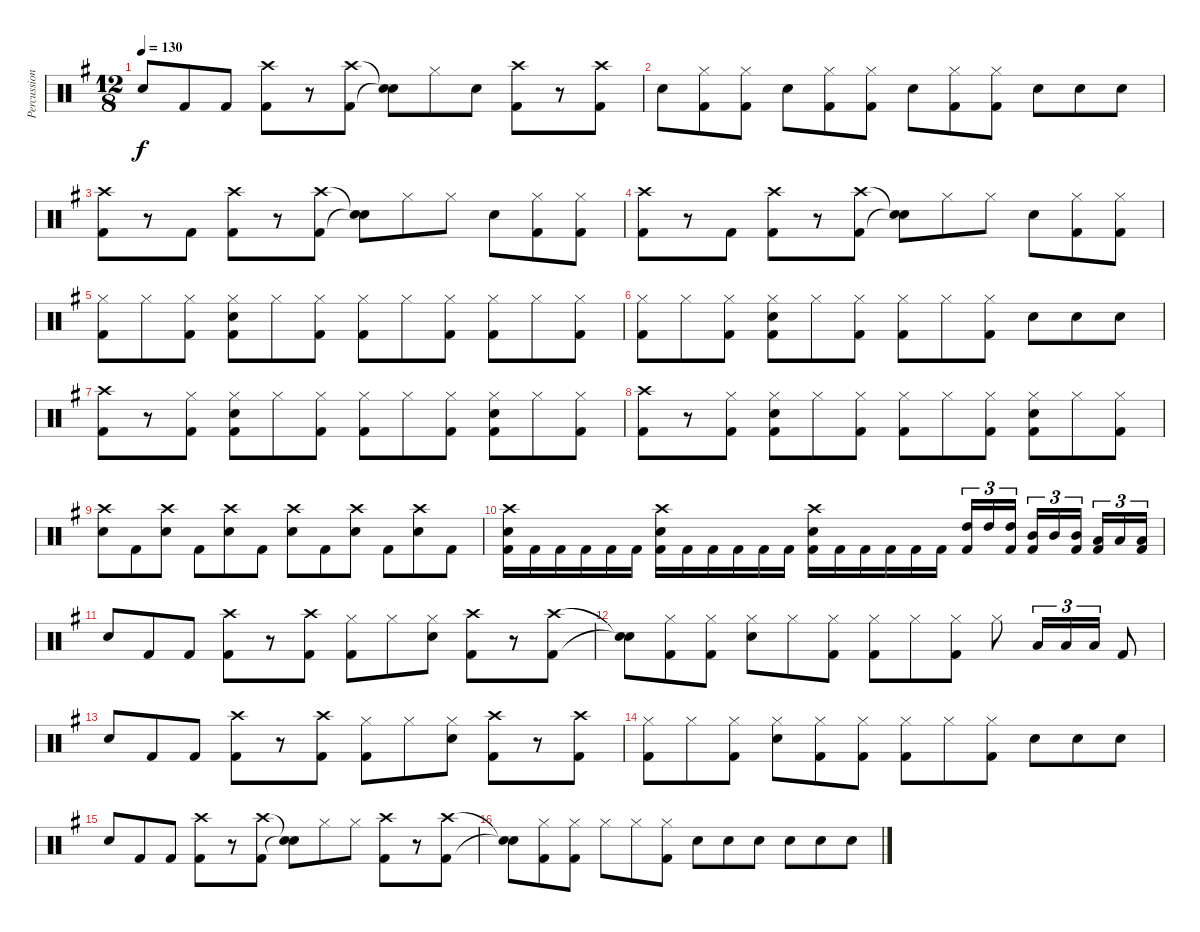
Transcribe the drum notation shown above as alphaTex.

\track ("Percussion" "Percussion") {instrument percussion}
\staff {score}
\articulation defaults
\ts (12 8)
\tempo 130
\clef neutral
\ks g "Snare (hit) 2".8{dy f} "Kick (hit) 2".8 "Kick (hit) 2".8
("Crash high (hit)" "Kick (hit) 2").8 r.8 ("Crash high (hit)" "Kick (hit) 2").8 ("Snare (hit)"{t} "Snare (hit)"{t}).8 "Hi-Hat (closed)".8 "Snare (hit) 2".8 ("Crash high (hit)" "Kick (hit) 2").8 r.8 ("Crash high (hit)" "Kick (hit) 2").8 |
"Snare (hit) 2".8 ("Hi-Hat (closed)" "Kick (hit) 2").8 ("Hi-Hat (closed)" "Kick (hit) 2").8 "Snare (hit) 2".8 ("Hi-Hat (closed)" "Kick (hit) 2").8 ("Hi-Hat (closed)" "Kick (hit) 2").8 "Snare (hit) 2".8 ("Hi-Hat (closed)" "Kick (hit) 2").8 ("Hi-Hat (closed)" "Kick (hit) 2").8 "Snare (hit) 2".8 "Snare (hit) 2".8 "Snare (hit) 2".8 |
("Crash high (hit)" "Kick (hit) 2").8 r.8 "Kick (hit) 2".8 ("Crash high (hit)" "Kick (hit) 2").8 r.8 ("Crash high (hit)" "Kick (hit) 2").8 ("Snare (hit)"{t} "Snare (hit)"{t}).8 "Hi-Hat (closed)".8 "Hi-Hat (closed)".8 "Snare (hit) 2".8 ("Hi-Hat (closed)" "Kick (hit) 2").8 ("Hi-Hat (closed)" "Kick (hit) 2").8 |
("Crash high (hit)" "Kick (hit) 2").8 r.8 "Kick (hit) 2".8 ("Crash high (hit)" "Kick (hit) 2").8 r.8 ("Crash high (hit)" "Kick (hit) 2").8 ("Snare (hit)"{t} "Snare (hit)"{t}).8 "Hi-Hat (closed)".8 "Hi-Hat (closed)".8 "Snare (hit) 2".8 ("Hi-Hat (closed)" "Kick (hit) 2").8 ("Hi-Hat (closed)" "Kick (hit) 2").8 |
("Hi-Hat (closed)" "Kick (hit) 2").8 "Hi-Hat (closed)".8 ("Hi-Hat (closed)" "Kick (hit) 2").8 ("Hi-Hat (closed)" "Snare (hit) 2" "Kick (hit) 2").8 "Hi-Hat (closed)".8 ("Hi-Hat (closed)" "Kick (hit) 2").8 ("Hi-Hat (closed)" "Kick (hit) 2").8 "Hi-Hat (closed)".8 ("Hi-Hat (closed)" "Kick (hit) 2").8 ("Hi-Hat (closed)" "Kick (hit) 2").8 "Hi-Hat (closed)".8 ("Hi-Hat (closed)" "Kick (hit) 2").8 |
("Hi-Hat (closed)" "Kick (hit) 2").8 "Hi-Hat (closed)".8 ("Hi-Hat (closed)" "Kick (hit) 2").8 ("Hi-Hat (closed)" "Snare (hit) 2" "Kick (hit) 2").8 "Hi-Hat (closed)".8 ("Hi-Hat (closed)" "Kick (hit) 2").8 ("Hi-Hat (closed)" "Kick (hit) 2").8 "Hi-Hat (closed)".8 ("Hi-Hat (closed)" "Kick (hit) 2").8 "Snare (hit) 2".8 "Snare (hit) 2".8 "Snare (hit) 2".8 |
("Crash high (hit)" "Kick (hit) 2").8 r.8 ("Hi-Hat (closed)" "Kick (hit) 2").8 ("Hi-Hat (closed)" "Snare (hit) 2" "Kick (hit) 2").8 "Hi-Hat (closed)".8 ("Hi-Hat (closed)" "Kick (hit) 2").8 ("Hi-Hat (closed)" "Kick (hit) 2").8 "Hi-Hat (closed)".8 ("Hi-Hat (closed)" "Kick (hit) 2").8 ("Hi-Hat (closed)" "Snare (hit) 2" "Kick (hit) 2").8 "Hi-Hat (closed)".8 ("Hi-Hat (closed)" "Kick (hit) 2").8 |
("Crash high (hit)" "Kick (hit) 2").8 r.8 ("Hi-Hat (closed)" "Kick (hit) 2").8 ("Hi-Hat (closed)" "Snare (hit) 2" "Kick (hit) 2").8 "Hi-Hat (closed)".8 ("Hi-Hat (closed)" "Kick (hit) 2").8 ("Hi-Hat (closed)" "Kick (hit) 2").8 "Hi-Hat (closed)".8 ("Hi-Hat (closed)" "Kick (hit) 2").8 ("Hi-Hat (closed)" "Snare (hit) 2" "Kick (hit) 2").8 "Hi-Hat (closed)".8 ("Hi-Hat (closed)" "Kick (hit) 2").8 |
("Crash high (hit)" "Snare (hit) 2").8 "Kick (hit) 2".8 ("Crash high (hit)" "Snare (hit) 2").8 "Kick (hit) 2".8 ("Crash high (hit)" "Snare (hit) 2").8 "Kick (hit) 2".8 ("Crash high (hit)" "Snare (hit) 2").8 "Kick (hit) 2".8 ("Crash high (hit)" "Snare (hit) 2").8 "Kick (hit) 2".8 ("Crash high (hit)" "Snare (hit) 2").8 "Kick (hit) 2".8 |
("Crash high (hit)" "Snare (hit) 2" "Kick (hit) 2").16 "Kick (hit) 2".16 "Kick (hit) 2".16 "Kick (hit) 2".16 "Kick (hit) 2".16 "Kick (hit) 2".16 ("Crash high (hit)" "Snare (hit) 2" "Kick (hit) 2").16 "Kick (hit) 2".16 "Kick (hit) 2".16 "Kick (hit) 2".16 "Kick (hit) 2".16 "Kick (hit) 2".16 ("Crash high (hit)" "Snare (hit) 2" "Kick (hit) 2").16 "Kick (hit) 2".16 "Kick (hit) 2".16 "Kick (hit) 2".16 "Kick (hit) 2".16 "Kick (hit) 2".16 ("High Tom (hit)" "Kick (hit) 2").16{tu (3 2)} "High Tom (hit)".16{tu (3 2)} ("High Tom (hit)" "Kick (hit) 2").16{tu (3 2) beam splitsecondary} ("Mid Tom (hit)" "Kick (hit) 2").16{tu (3 2)} "Mid Tom (hit)".16{tu (3 2)} ("Mid Tom (hit)" "Kick (hit) 2").16{tu (3 2) beam splitsecondary} ("Low Tom (hit)" "Kick (hit) 2").16{tu (3 2)} "Low Tom (hit)".16{tu (3 2)} ("Low Tom (hit)" "Kick (hit) 2").16{tu (3 2)} |
"Snare (hit) 2".8 "Kick (hit) 2".8 "Kick (hit) 2".8 ("Crash high (hit)" "Kick (hit) 2").8 r.8 ("Crash high (hit)" "Kick (hit) 2").8 ("Hi-Hat (closed)" "Kick (hit) 2").8 "Hi-Hat (closed)".8 ("Hi-Hat (closed)" "Snare (hit) 2").8 ("Crash high (hit)" "Kick (hit) 2").8 r.8 ("Crash high (hit)" "Kick (hit) 2").8 |
("Snare (hit)"{t} "Snare (hit)"{t}).8 ("Hi-Hat (closed)" "Kick (hit) 2").8 ("Hi-Hat (closed)" "Kick (hit) 2").8 ("Hi-Hat (closed)" "Snare (hit) 2").8 "Hi-Hat (closed)".8 ("Hi-Hat (closed)" "Kick (hit) 2").8 ("Hi-Hat (closed)" "Kick (hit) 2").8 "Hi-Hat (closed)".8 ("Hi-Hat (closed)" "Kick (hit) 2").8 "Hi-Hat (closed)".8 "Low Tom (hit)".16{tu (3 2)} "Low Tom (hit)".16{tu (3 2)} "Low Tom (hit)".16{tu (3 2)} "Kick (hit) 2".8 |
"Snare (hit) 2".8 "Kick (hit) 2".8 "Kick (hit) 2".8 ("Crash high (hit)" "Kick (hit) 2").8 r.8 ("Crash high (hit)" "Kick (hit) 2").8 ("Hi-Hat (closed)" "Kick (hit) 2").8 "Hi-Hat (closed)".8 ("Hi-Hat (closed)" "Snare (hit) 2").8 ("Crash high (hit)" "Kick (hit) 2").8 r.8 ("Crash high (hit)" "Kick (hit) 2").8 |
("Hi-Hat (closed)" "Kick (hit) 2").8 "Hi-Hat (closed)".8 ("Hi-Hat (closed)" "Kick (hit) 2").8 ("Hi-Hat (closed)" "Snare (hit) 2").8 ("Hi-Hat (closed)" "Kick (hit) 2").8 ("Hi-Hat (closed)" "Kick (hit) 2").8 ("Hi-Hat (closed)" "Kick (hit) 2").8 "Hi-Hat (closed)".8 ("Hi-Hat (closed)" "Kick (hit) 2").8 "Snare (hit) 2".8 "Snare (hit) 2".8 "Snare (hit) 2".8 |
"Snare (hit) 2".8 "Kick (hit) 2".8 "Kick (hit) 2".8 ("Crash high (hit)" "Kick (hit) 2").8 r.8 ("Crash high (hit)" "Kick (hit) 2").8 ("Snare (hit)"{t} "Snare (hit)"{t}).8 "Hi-Hat (closed)".8 "Hi-Hat (closed)".8 ("Crash high (hit)" "Kick (hit) 2").8 r.8 ("Crash high (hit)" "Kick (hit) 2").8 |
("Snare (hit)"{t} "Snare (hit)"{t}).8 ("Hi-Hat (closed)" "Kick (hit) 2").8 ("Hi-Hat (closed)" "Kick (hit) 2").8 "Hi-Hat (closed)".8 "Hi-Hat (closed)".8 ("Hi-Hat (closed)" "Kick (hit) 2").8 "Snare (hit) 2".8 "Snare (hit) 2".8 "Snare (hit) 2".8 "Snare (hit) 2".8 "Snare (hit) 2".8 "Snare (hit) 2".8
